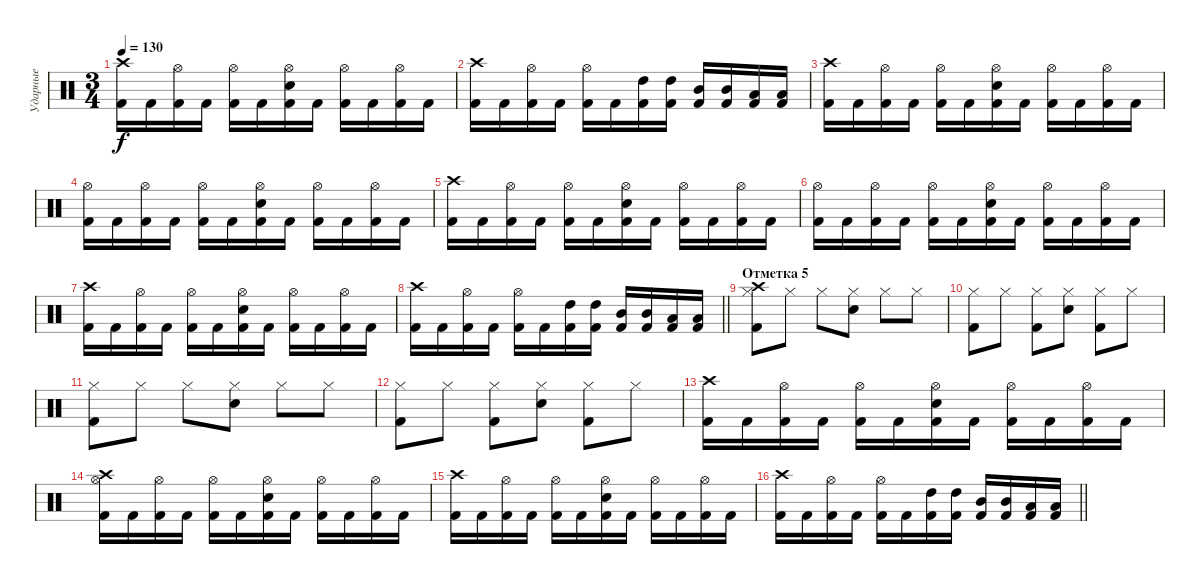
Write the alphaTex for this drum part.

\track ("Ударные" "Ударные") {instrument percussion}
\staff {score}
\articulation defaults
\ts (3 4)
\tempo 130
\clef neutral
\ks c
("Kick (hit) 2" "Crash high (hit)").16{dy f} "Kick (hit) 2".16 ("Kick (hit) 2" "Hi-Hat (open)").16 "Kick (hit) 2".16 ("Kick (hit) 2" "Hi-Hat (open)").16 "Kick (hit) 2".16 ("Kick (hit) 2" "Electric Snare (hit)" "Hi-Hat (open)").16 "Kick (hit) 2".16 ("Kick (hit) 2" "Hi-Hat (open)").16 "Kick (hit) 2".16 ("Kick (hit) 2" "Hi-Hat (open)").16 "Kick (hit) 2".16 |
("Kick (hit) 2" "Crash high (hit)").16 "Kick (hit) 2".16 ("Kick (hit) 2" "Hi-Hat (open)").16 "Kick (hit) 2".16 ("Kick (hit) 2" "Hi-Hat (open)").16 "Kick (hit) 2".16 ("Kick (hit) 2" "High Tom (hit)").16 ("Kick (hit) 2" "High Tom (hit)").16 ("Kick (hit) 2" "Mid Tom (hit)").16 ("Kick (hit) 2" "Mid Tom (hit)").16 ("Kick (hit) 2" "Low Tom (hit)").16 ("Kick (hit) 2" "Low Tom (hit)").16 |
("Kick (hit) 2" "Crash high (hit)").16 "Kick (hit) 2".16 ("Kick (hit) 2" "Hi-Hat (open)").16 "Kick (hit) 2".16 ("Kick (hit) 2" "Hi-Hat (open)").16 "Kick (hit) 2".16 ("Kick (hit) 2" "Electric Snare (hit)" "Hi-Hat (open)").16 "Kick (hit) 2".16 ("Kick (hit) 2" "Hi-Hat (open)").16 "Kick (hit) 2".16 ("Kick (hit) 2" "Hi-Hat (open)").16 "Kick (hit) 2".16 |
("Kick (hit) 2" "Hi-Hat (open)").16 "Kick (hit) 2".16 ("Kick (hit) 2" "Hi-Hat (open)").16 "Kick (hit) 2".16 ("Kick (hit) 2" "Hi-Hat (open)").16 "Kick (hit) 2".16 ("Kick (hit) 2" "Electric Snare (hit)" "Hi-Hat (open)").16 "Kick (hit) 2".16 ("Kick (hit) 2" "Hi-Hat (open)").16 "Kick (hit) 2".16 ("Kick (hit) 2" "Hi-Hat (open)").16 "Kick (hit) 2".16 |
("Kick (hit) 2" "Crash high (hit)").16 "Kick (hit) 2".16 ("Kick (hit) 2" "Hi-Hat (open)").16 "Kick (hit) 2".16 ("Kick (hit) 2" "Hi-Hat (open)").16 "Kick (hit) 2".16 ("Kick (hit) 2" "Electric Snare (hit)" "Hi-Hat (open)").16 "Kick (hit) 2".16 ("Kick (hit) 2" "Hi-Hat (open)").16 "Kick (hit) 2".16 ("Kick (hit) 2" "Hi-Hat (open)").16 "Kick (hit) 2".16 |
("Kick (hit) 2" "Hi-Hat (open)").16 "Kick (hit) 2".16 ("Kick (hit) 2" "Hi-Hat (open)").16 "Kick (hit) 2".16 ("Kick (hit) 2" "Hi-Hat (open)").16 "Kick (hit) 2".16 ("Kick (hit) 2" "Electric Snare (hit)" "Hi-Hat (open)").16 "Kick (hit) 2".16 ("Kick (hit) 2" "Hi-Hat (open)").16 "Kick (hit) 2".16 ("Kick (hit) 2" "Hi-Hat (open)").16 "Kick (hit) 2".16 |
("Kick (hit) 2" "Crash high (hit)").16 "Kick (hit) 2".16 ("Kick (hit) 2" "Hi-Hat (open)").16 "Kick (hit) 2".16 ("Kick (hit) 2" "Hi-Hat (open)").16 "Kick (hit) 2".16 ("Kick (hit) 2" "Electric Snare (hit)" "Hi-Hat (open)").16 "Kick (hit) 2".16 ("Kick (hit) 2" "Hi-Hat (open)").16 "Kick (hit) 2".16 ("Kick (hit) 2" "Hi-Hat (open)").16 "Kick (hit) 2".16 |
\barLineRight lightlight
("Kick (hit) 2" "Crash high (hit)").16 "Kick (hit) 2".16 ("Kick (hit) 2" "Hi-Hat (open)").16 "Kick (hit) 2".16 ("Kick (hit) 2" "Hi-Hat (open)").16 "Kick (hit) 2".16 ("Kick (hit) 2" "High Tom (hit)").16 ("Kick (hit) 2" "High Tom (hit)").16 ("Kick (hit) 2" "Mid Tom (hit)").16 ("Kick (hit) 2" "Mid Tom (hit)").16 ("Kick (hit) 2" "Low Tom (hit)").16 ("Kick (hit) 2" "Low Tom (hit)").16 |
\section ("" "Отметка 5")
("Hi-Hat (closed)" "Crash high (hit)" "Kick (hit) 2").8 "Hi-Hat (closed)".8 "Hi-Hat (closed)".8 ("Hi-Hat (closed)" "Electric Snare (hit)").8 "Hi-Hat (closed)".8 "Hi-Hat (closed)".8 |
("Hi-Hat (closed)" "Kick (hit) 2").8 "Hi-Hat (closed)".8 ("Hi-Hat (closed)" "Kick (hit) 2").8 ("Hi-Hat (closed)" "Electric Snare (hit)").8 ("Hi-Hat (closed)" "Kick (hit) 2").8 "Hi-Hat (closed)".8 |
("Hi-Hat (closed)" "Kick (hit) 2").8 "Hi-Hat (closed)".8 "Hi-Hat (closed)".8 ("Hi-Hat (closed)" "Electric Snare (hit)").8 "Hi-Hat (closed)".8 "Hi-Hat (closed)".8 |
("Hi-Hat (closed)" "Kick (hit) 2").8 "Hi-Hat (closed)".8 ("Hi-Hat (closed)" "Kick (hit) 2").8 ("Hi-Hat (closed)" "Electric Snare (hit)").8 ("Hi-Hat (closed)" "Kick (hit) 2").8 "Hi-Hat (closed)".8 |
("Kick (hit) 2" "Crash high (hit)").16 "Kick (hit) 2".16 ("Kick (hit) 2" "Hi-Hat (open)").16 "Kick (hit) 2".16 ("Kick (hit) 2" "Hi-Hat (open)").16 "Kick (hit) 2".16 ("Kick (hit) 2" "Electric Snare (hit)" "Hi-Hat (open)").16 "Kick (hit) 2".16 ("Kick (hit) 2" "Hi-Hat (open)").16 "Kick (hit) 2".16 ("Kick (hit) 2" "Hi-Hat (open)").16 "Kick (hit) 2".16 |
("Kick (hit) 2" "Crash high (hit)" "Hi-Hat (open)").16 "Kick (hit) 2".16 ("Kick (hit) 2" "Hi-Hat (open)").16 "Kick (hit) 2".16 ("Kick (hit) 2" "Hi-Hat (open)").16 "Kick (hit) 2".16 ("Kick (hit) 2" "Electric Snare (hit)" "Hi-Hat (open)").16 "Kick (hit) 2".16 ("Kick (hit) 2" "Hi-Hat (open)").16 "Kick (hit) 2".16 ("Kick (hit) 2" "Hi-Hat (open)").16 "Kick (hit) 2".16 |
("Kick (hit) 2" "Crash high (hit)").16 "Kick (hit) 2".16 ("Kick (hit) 2" "Hi-Hat (open)").16 "Kick (hit) 2".16 ("Kick (hit) 2" "Hi-Hat (open)").16 "Kick (hit) 2".16 ("Kick (hit) 2" "Electric Snare (hit)" "Hi-Hat (open)").16 "Kick (hit) 2".16 ("Kick (hit) 2" "Hi-Hat (open)").16 "Kick (hit) 2".16 ("Kick (hit) 2" "Hi-Hat (open)").16 "Kick (hit) 2".16 |
\barLineRight lightlight
("Kick (hit) 2" "Crash high (hit)").16 "Kick (hit) 2".16 ("Kick (hit) 2" "Hi-Hat (open)").16 "Kick (hit) 2".16 ("Kick (hit) 2" "Hi-Hat (open)").16 "Kick (hit) 2".16 ("Kick (hit) 2" "High Tom (hit)").16 ("Kick (hit) 2" "High Tom (hit)").16 ("Kick (hit) 2" "Mid Tom (hit)").16 ("Kick (hit) 2" "Mid Tom (hit)").16 ("Kick (hit) 2" "Low Tom (hit)").16 ("Kick (hit) 2" "Low Tom (hit)").16
